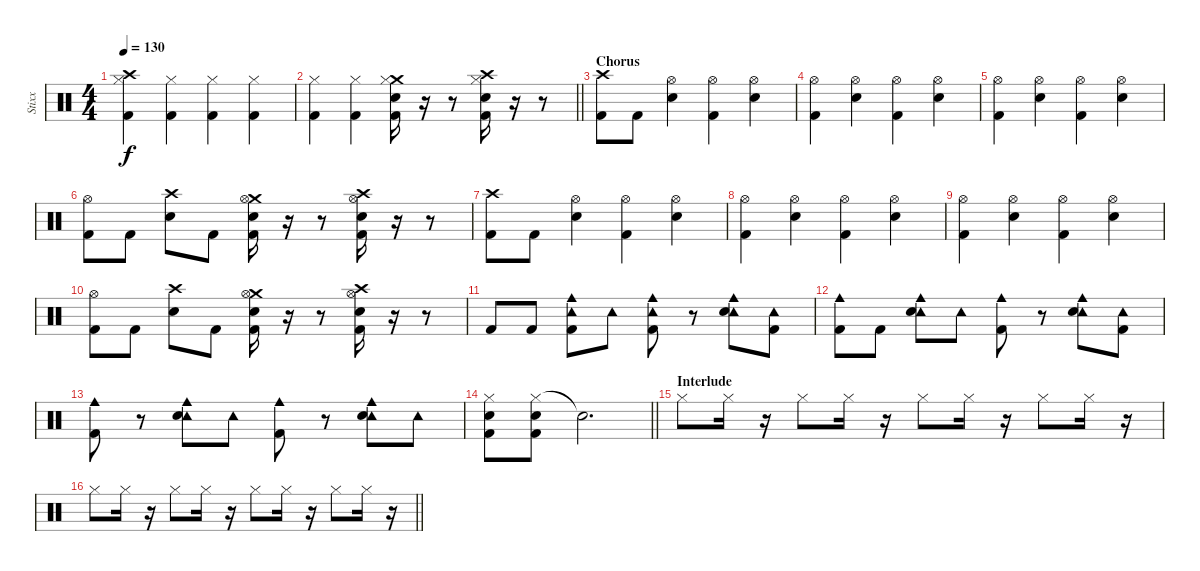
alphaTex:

\track ("Stixx" "Stixx") {instrument percussion}
\staff {score}
\articulation defaults
\ts (4 4)
\tempo 130
\clef neutral
\ks c
("Crash high (hit)" "Hi-Hat (closed)" "Kick (hit) 2").4{dy f} ("Hi-Hat (closed)" "Kick (hit) 2").4 ("Hi-Hat (closed)" "Kick (hit) 2").4 ("Hi-Hat (closed)" "Kick (hit) 2").4 |
\barLineRight lightlight
("Hi-Hat (closed)" "Kick (hit) 2").4 ("Hi-Hat (closed)" "Kick (hit) 2").4 ("Crash medium (hit)" "Snare (hit) 2" "Hi-Hat (closed)" "Kick (hit) 2").16 r.16 r.8 ("Crash high (hit)" "Snare (hit) 2" "Hi-Hat (closed)" "Kick (hit) 2").16 r.16 r.8 |
\section ("" "Chorus")
("Crash high (hit)" "Kick (hit) 2").8 "Kick (hit) 2".8 ("Hi-Hat (open)" "Snare (hit) 2").4 ("Hi-Hat (open)" "Kick (hit) 2").4 ("Hi-Hat (open)" "Snare (hit) 2").4 |
("Hi-Hat (open)" "Kick (hit) 2").4 ("Hi-Hat (open)" "Snare (hit) 2").4 ("Hi-Hat (open)" "Kick (hit) 2").4 ("Hi-Hat (open)" "Snare (hit) 2").4 |
("Hi-Hat (open)" "Kick (hit) 2").4 ("Hi-Hat (open)" "Snare (hit) 2").4 ("Hi-Hat (open)" "Kick (hit) 2").4 ("Hi-Hat (open)" "Snare (hit) 2").4 |
("Hi-Hat (open)" "Kick (hit) 2").8 "Kick (hit) 2".8 ("Crash high (hit)" "Snare (hit) 2").8 "Kick (hit) 2".8 ("Crash medium (hit)" "Snare (hit) 2" "Hi-Hat (open)" "Kick (hit) 2").16 r.16 r.8 ("Crash high (hit)" "Snare (hit) 2" "Hi-Hat (open)" "Kick (hit) 2").16 r.16 r.8 |
("Crash high (hit)" "Kick (hit) 2").8 "Kick (hit) 2".8 ("Hi-Hat (open)" "Snare (hit) 2").4 ("Hi-Hat (open)" "Kick (hit) 2").4 ("Hi-Hat (open)" "Snare (hit) 2").4 |
("Hi-Hat (open)" "Kick (hit) 2").4 ("Hi-Hat (open)" "Snare (hit) 2").4 ("Hi-Hat (open)" "Kick (hit) 2").4 ("Hi-Hat (open)" "Snare (hit) 2").4 |
("Hi-Hat (open)" "Kick (hit) 2").4 ("Hi-Hat (open)" "Snare (hit) 2").4 ("Hi-Hat (open)" "Kick (hit) 2").4 ("Hi-Hat (open)" "Snare (hit) 2").4 |
("Hi-Hat (open)" "Kick (hit) 2").8 "Kick (hit) 2".8 ("Crash high (hit)" "Snare (hit) 2").8 "Kick (hit) 2".8 ("Crash medium (hit)" "Snare (hit) 2" "Hi-Hat (open)" "Kick (hit) 2").16 r.16 r.8 ("Crash high (hit)" "Snare (hit) 2" "Hi-Hat (open)" "Kick (hit) 2").16 r.16 r.8 |
"Kick (hit) 2".8 "Kick (hit) 2".8 ("Tambourine (hit)" "Cowbell medium (hit)" "Kick (hit) 2").8 "Tambourine (hit)".8 ("Tambourine (hit)" "Cowbell medium (hit)" "Kick (hit) 2").8 r.8 ("Tambourine (hit)" "Cowbell medium (hit)" "Snare (hit) 2").8 ("Tambourine (hit)" "Kick (hit) 2").8 |
("Cowbell medium (hit)" "Kick (hit) 2").8 "Kick (hit) 2".8 ("Tambourine (hit)" "Cowbell medium (hit)" "Snare (hit) 2").8 "Tambourine (hit)".8 ("Cowbell medium (hit)" "Kick (hit) 2").8 r.8 ("Tambourine (hit)" "Cowbell medium (hit)" "Snare (hit) 2").8 ("Tambourine (hit)" "Kick (hit) 2").8 |
("Cowbell medium (hit)" "Kick (hit) 2").8 r.8 ("Tambourine (hit)" "Cowbell medium (hit)" "Snare (hit) 2").8 "Tambourine (hit)".8 ("Cowbell medium (hit)" "Kick (hit) 2").8 r.8 ("Tambourine (hit)" "Cowbell medium (hit)" "Snare (hit) 2").8 "Tambourine (hit)".8 |
\barLineRight lightlight
("Hi-Hat (closed)" "Snare (hit) 2" "Kick (hit) 2").8 ("Hi-Hat (closed)" "Snare (hit) 2" "Kick (hit) 2").8 "Snare (hit)"{t}.2{d} |
\section ("" "Interlude")
"Hi-Hat (closed)".8 "Hi-Hat (closed)".16 r.16 "Hi-Hat (closed)".8 "Hi-Hat (closed)".16 r.16 "Hi-Hat (closed)".8 "Hi-Hat (closed)".16 r.16 "Hi-Hat (closed)".8 "Hi-Hat (closed)".16 r.16 |
\barLineRight lightlight "Hi-Hat (closed)".8 "Hi-Hat (closed)".16
r.16 "Hi-Hat (closed)".8 "Hi-Hat (closed)".16 r.16 "Hi-Hat (closed)".8 "Hi-Hat (closed)".16 r.16 "Hi-Hat (closed)".8 "Hi-Hat (closed)".16 r.16
